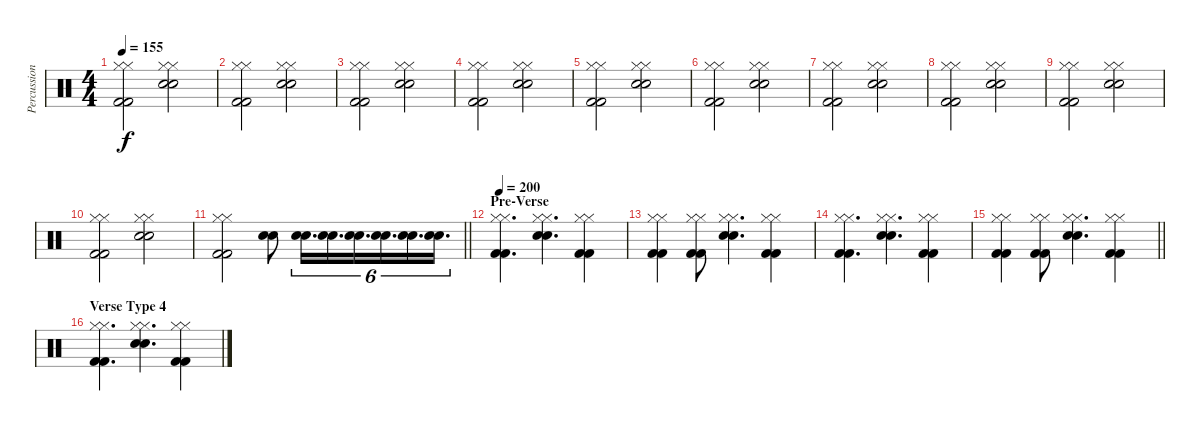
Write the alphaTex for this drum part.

\track ("Percussion" "Percussion") {instrument percussion}
\staff {score}
\articulation defaults
\ts (4 4)
\tempo 155
\clef neutral
\ks c
("Hi-Hat (closed)" "Hi-Hat (closed)" "Kick (hit) 2" "Kick (hit) 2").2{dy f} ("Hi-Hat (closed)" "Hi-Hat (closed)" "Electric Snare (hit)" "Electric Snare (hit)").2 |
("Hi-Hat (closed)" "Hi-Hat (closed)" "Kick (hit) 2" "Kick (hit) 2").2 ("Hi-Hat (closed)" "Hi-Hat (closed)" "Electric Snare (hit)" "Electric Snare (hit)").2 |
("Hi-Hat (closed)" "Hi-Hat (closed)" "Kick (hit) 2" "Kick (hit) 2").2 ("Hi-Hat (closed)" "Hi-Hat (closed)" "Electric Snare (hit)" "Electric Snare (hit)").2 |
("Hi-Hat (closed)" "Hi-Hat (closed)" "Kick (hit) 2" "Kick (hit) 2").2 ("Hi-Hat (closed)" "Hi-Hat (closed)" "Electric Snare (hit)" "Electric Snare (hit)").2 |
("Hi-Hat (closed)" "Hi-Hat (closed)" "Kick (hit) 2" "Kick (hit) 2").2 ("Hi-Hat (closed)" "Hi-Hat (closed)" "Electric Snare (hit)" "Electric Snare (hit)").2 |
("Hi-Hat (closed)" "Hi-Hat (closed)" "Kick (hit) 2" "Kick (hit) 2").2 ("Hi-Hat (closed)" "Hi-Hat (closed)" "Electric Snare (hit)" "Electric Snare (hit)").2 |
("Hi-Hat (closed)" "Hi-Hat (closed)" "Kick (hit) 2" "Kick (hit) 2").2 ("Hi-Hat (closed)" "Hi-Hat (closed)" "Electric Snare (hit)" "Electric Snare (hit)").2 |
("Hi-Hat (closed)" "Hi-Hat (closed)" "Kick (hit) 2" "Kick (hit) 2").2 ("Hi-Hat (closed)" "Hi-Hat (closed)" "Electric Snare (hit)" "Electric Snare (hit)").2 |
("Hi-Hat (closed)" "Hi-Hat (closed)" "Kick (hit) 2" "Kick (hit) 2").2 ("Hi-Hat (closed)" "Hi-Hat (closed)" "Electric Snare (hit)" "Electric Snare (hit)").2 |
("Hi-Hat (closed)" "Hi-Hat (closed)" "Kick (hit) 2" "Kick (hit) 2").2 ("Hi-Hat (closed)" "Hi-Hat (closed)" "Electric Snare (hit)" "Electric Snare (hit)").2 |
\barLineRight lightlight
("Hi-Hat (closed)" "Hi-Hat (closed)" "Kick (hit) 2" "Kick (hit) 2").2 ("Electric Snare (hit)" "Electric Snare (hit)").8 ("Electric Snare (hit)" "Electric Snare (hit)").16{d tu (6 4)} ("Electric Snare (hit)" "Electric Snare (hit)").16{d tu (6 4)} ("Electric Snare (hit)" "Electric Snare (hit)").16{d tu (6 4)} ("Electric Snare (hit)" "Electric Snare (hit)").16{d tu (6 4)} ("Electric Snare (hit)" "Electric Snare (hit)").16{d tu (6 4)} ("Electric Snare (hit)" "Electric Snare (hit)").16{d tu (6 4)} |
\section ("" "Pre-Verse")
\tempo 200
("Hi-Hat (closed)" "Hi-Hat (closed)" "Kick (hit) 2" "Kick (hit) 2").4{d} ("Hi-Hat (closed)" "Hi-Hat (closed)" "Electric Snare (hit)" "Electric Snare (hit)").4{d} ("Hi-Hat (closed)" "Hi-Hat (closed)" "Kick (hit) 2" "Kick (hit) 2").4 |
("Hi-Hat (closed)" "Hi-Hat (closed)" "Kick (hit) 2" "Kick (hit) 2").4 ("Hi-Hat (closed)" "Hi-Hat (closed)" "Kick (hit) 2" "Kick (hit) 2").8 ("Hi-Hat (closed)" "Hi-Hat (closed)" "Electric Snare (hit)" "Electric Snare (hit)").4{d} ("Hi-Hat (closed)" "Hi-Hat (closed)" "Kick (hit) 2" "Kick (hit) 2").4 |
("Hi-Hat (closed)" "Hi-Hat (closed)" "Kick (hit) 2" "Kick (hit) 2").4{d} ("Hi-Hat (closed)" "Hi-Hat (closed)" "Electric Snare (hit)" "Electric Snare (hit)").4{d} ("Hi-Hat (closed)" "Hi-Hat (closed)" "Kick (hit) 2" "Kick (hit) 2").4 |
\barLineRight lightlight
("Hi-Hat (closed)" "Hi-Hat (closed)" "Kick (hit) 2" "Kick (hit) 2").4 ("Hi-Hat (closed)" "Hi-Hat (closed)" "Kick (hit) 2" "Kick (hit) 2").8 ("Hi-Hat (closed)" "Hi-Hat (closed)" "Electric Snare (hit)" "Electric Snare (hit)").4{d} ("Hi-Hat (closed)" "Hi-Hat (closed)" "Kick (hit) 2" "Kick (hit) 2").4 |
\section ("" "Verse Type 4")
("Hi-Hat (closed)" "Hi-Hat (closed)" "Kick (hit) 2" "Kick (hit) 2").4{d} ("Hi-Hat (closed)" "Hi-Hat (closed)" "Electric Snare (hit)" "Electric Snare (hit)").4{d} ("Hi-Hat (closed)" "Hi-Hat (closed)" "Kick (hit) 2" "Kick (hit) 2").4
